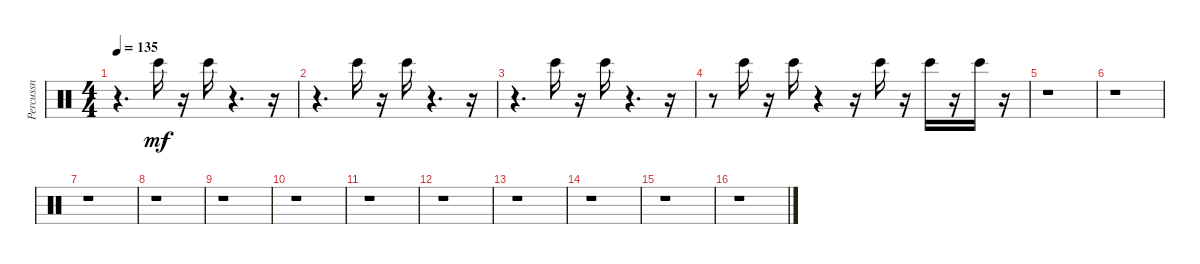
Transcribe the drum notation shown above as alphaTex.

\track ("Percussn" "Percussn") {instrument percussion}
\staff {score}
\articulation defaults
\ts (4 4)
\tempo 135
\clef neutral
\ks c
r.4{d dy mf} "Bongo High (hit)".16{balance 16} r.16 "Bongo High (hit)".16{balance 15} r.4{d} r.16 |
r.4{d} "Bongo High (hit)".16{balance 5} r.16 "Bongo High (hit)".16{balance 13} r.4{d} r.16 |
r.4{d} "Bongo High (hit)".16{balance 16} r.16 "Bongo High (hit)".16{balance 8} r.4{d} r.16 |
r.8 "Bongo High (hit)".16{balance 11} r.16 "Bongo High (hit)".16{balance 6} r.4 r.16 "Bongo High (hit)".16{balance 15} r.16 "Bongo High (hit)".16{balance 9} r.16 "Bongo High (hit)".16{balance 6} r.16 |
r.1 |
r.1 |
r.1 |
r.1 |
r.1 |
r.1 |
r.1 |
r.1 |
r.1 |
r.1 |
r.1 |
r.1
